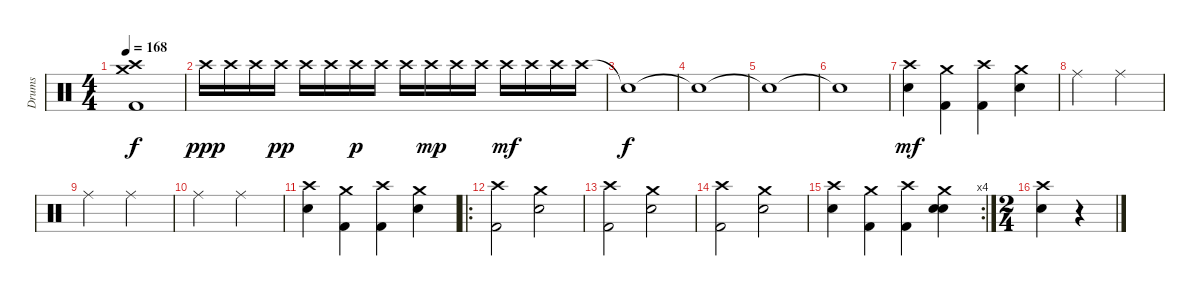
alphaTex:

\track ("Drums" "Drums") {instrument percussion}
\staff {score}
\articulation defaults
\ts (4 4)
\tempo 168
\clef neutral
\ks c
("Crash medium (hit)" "Crash high (hit)" "Kick (hit) 2").1{dy f} |
"Crash high (hit)".16{dy ppp} "Crash high (hit)".16 "Crash high (hit)".16 "Crash high (hit)".16{dy pp} "Crash high (hit)".16 "Crash high (hit)".16 "Crash high (hit)".16{dy p} "Crash high (hit)".16 "Crash high (hit)".16 "Crash high (hit)".16{dy mp} "Crash high (hit)".16 "Crash high (hit)".16 "Crash high (hit)".16{dy mf} "Crash high (hit)".16 "Crash high (hit)".16 "Crash high (hit)".16 |
"Snare (hit)"{t}.1{dy f} |
"Snare (hit)"{t}.1 |
"Snare (hit)"{t}.1 |
"Snare (hit)"{t}.1 |
("Crash high (hit)" "Snare (hit) 2").4{dy mf} ("Crash medium (hit)" "Kick (hit) 2").4 ("Crash high (hit)" "Kick (hit) 2").4 ("Crash medium (hit)" "Snare (hit) 2").4 |
"Ride (middle)".2 "Ride (middle)".2 |
"Ride (middle)".2 "Ride (middle)".2 |
"Ride (middle)".2 "Ride (middle)".2 |
("Crash high (hit)" "Snare (hit) 2").4 ("Crash medium (hit)" "Kick (hit) 2").4 ("Crash high (hit)" "Kick (hit) 2").4 ("Crash medium (hit)" "Snare (hit) 2").4 |
\ro
("Crash high (hit)" "Kick (hit) 2").2 ("Crash medium (hit)" "Snare (hit) 2").2 |
("Crash high (hit)" "Kick (hit) 2").2 ("Crash medium (hit)" "Snare (hit) 2").2 |
("Crash high (hit)" "Kick (hit) 2").2 ("Crash medium (hit)" "Snare (hit) 2").2 |
\rc 4
("Crash high (hit)" "Snare (hit) 2").4 ("Crash medium (hit)" "Kick (hit) 2").4 ("Crash high (hit)" "Kick (hit) 2").4 ("Crash medium (hit)" "Snare (hit) 2" "Snare (hit) 2").4 |
\ts (2 4)
("Crash high (hit)" "Snare (hit) 2").4 r.4
